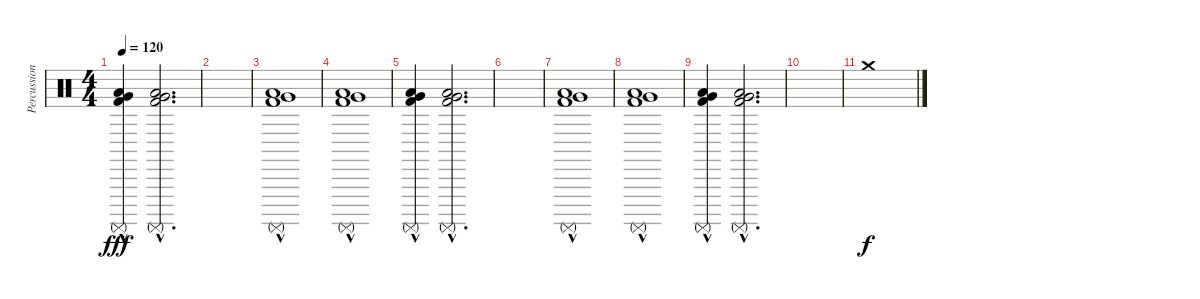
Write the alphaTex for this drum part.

\track ("Percussions Principales" "Percussion") {instrument percussion}
\staff {score}
\articulation defaults
\ts (4 4)
\tempo 120
\clef neutral
\ks c
("Surdo (mute)"{hac} "Low Floor Tom (hit)"{hac} "Kick (hit) 2"{hac} "Very Low Tom (hit)").4{dy fff} ("Surdo (mute)"{hac} "Low Floor Tom (hit)"{hac} "Kick (hit) 2"{hac} "Very Low Tom (hit)").2{d} |
|
("Surdo (mute)"{hac} "Low Floor Tom (hit)"{hac} "Kick (hit) 2"{hac} "Very Low Tom (hit)").1 |
("Surdo (mute)"{hac} "Low Floor Tom (hit)"{hac} "Kick (hit) 2"{hac} "Very Low Tom (hit)").1 |
("Surdo (mute)"{hac} "Low Floor Tom (hit)"{hac} "Kick (hit) 2"{hac} "Very Low Tom (hit)").4 ("Surdo (mute)"{hac} "Low Floor Tom (hit)"{hac} "Kick (hit) 2"{hac} "Very Low Tom (hit)").2{d} |
|
("Surdo (mute)"{hac} "Low Floor Tom (hit)"{hac} "Kick (hit) 2"{hac} "Very Low Tom (hit)").1 |
("Surdo (mute)"{hac} "Low Floor Tom (hit)"{hac} "Kick (hit) 2"{hac} "Very Low Tom (hit)").1 |
("Surdo (mute)"{hac} "Low Floor Tom (hit)"{hac} "Kick (hit) 2"{hac} "Very Low Tom (hit)").4 ("Surdo (mute)"{hac} "Low Floor Tom (hit)"{hac} "Kick (hit) 2"{hac} "Very Low Tom (hit)").2{d} |
|
"Crash medium (hit)".1{dy f}
